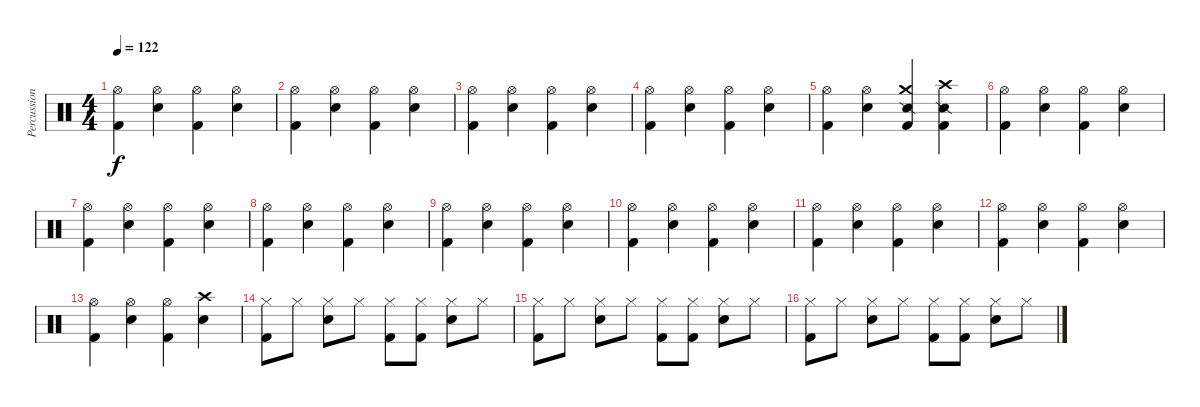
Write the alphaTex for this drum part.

\track ("Percussion" "Percussion") {instrument percussion}
\staff {score}
\articulation defaults
\ts (4 4)
\tempo 122
\clef neutral
\ks c
("Hi-Hat (open)" "Kick (hit) 2").4{dy f} ("Hi-Hat (open)" "Electric Snare (hit)").4 ("Hi-Hat (open)" "Kick (hit) 2").4 ("Hi-Hat (open)" "Electric Snare (hit)").4 |
("Hi-Hat (open)" "Kick (hit) 2").4 ("Hi-Hat (open)" "Electric Snare (hit)").4 ("Hi-Hat (open)" "Kick (hit) 2").4 ("Hi-Hat (open)" "Electric Snare (hit)").4 |
("Hi-Hat (open)" "Kick (hit) 2").4 ("Hi-Hat (open)" "Electric Snare (hit)").4 ("Hi-Hat (open)" "Kick (hit) 2").4 ("Hi-Hat (open)" "Electric Snare (hit)").4 |
("Hi-Hat (open)" "Kick (hit) 2").4 ("Hi-Hat (open)" "Electric Snare (hit)").4 ("Hi-Hat (open)" "Kick (hit) 2").4 ("Hi-Hat (open)" "Electric Snare (hit)").4 |
("Hi-Hat (open)" "Kick (hit) 2").4 ("Hi-Hat (open)" "Electric Snare (hit)").4 ("Crash medium (hit)" "Snare (side stick) 2" "Kick (hit) 2").4 ("Crash high (hit)" "Snare (side stick) 2" "Kick (hit) 2").4 |
("Hi-Hat (open)" "Kick (hit) 2").4 ("Hi-Hat (open)" "Electric Snare (hit)").4 ("Hi-Hat (open)" "Kick (hit) 2").4 ("Hi-Hat (open)" "Electric Snare (hit)").4 |
("Hi-Hat (open)" "Kick (hit) 2").4 ("Hi-Hat (open)" "Electric Snare (hit)").4 ("Hi-Hat (open)" "Kick (hit) 2").4 ("Hi-Hat (open)" "Electric Snare (hit)").4 |
("Hi-Hat (open)" "Kick (hit) 2").4 ("Hi-Hat (open)" "Electric Snare (hit)").4 ("Hi-Hat (open)" "Kick (hit) 2").4 ("Hi-Hat (open)" "Electric Snare (hit)").4 |
("Hi-Hat (open)" "Kick (hit) 2").4 ("Hi-Hat (open)" "Electric Snare (hit)").4 ("Hi-Hat (open)" "Kick (hit) 2").4 ("Hi-Hat (open)" "Electric Snare (hit)").4 |
("Hi-Hat (open)" "Kick (hit) 2").4 ("Hi-Hat (open)" "Electric Snare (hit)").4 ("Hi-Hat (open)" "Kick (hit) 2").4 ("Hi-Hat (open)" "Electric Snare (hit)").4 |
("Hi-Hat (open)" "Kick (hit) 2").4 ("Hi-Hat (open)" "Electric Snare (hit)").4 ("Hi-Hat (open)" "Kick (hit) 2").4 ("Hi-Hat (open)" "Electric Snare (hit)").4 |
("Hi-Hat (open)" "Kick (hit) 2").4 ("Hi-Hat (open)" "Electric Snare (hit)").4 ("Hi-Hat (open)" "Kick (hit) 2").4 ("Hi-Hat (open)" "Electric Snare (hit)").4 |
("Hi-Hat (open)" "Kick (hit) 2").4 ("Hi-Hat (open)" "Electric Snare (hit)").4 ("Hi-Hat (open)" "Kick (hit) 2").4 ("Crash high (hit)" "Electric Snare (hit)").4 |
("Hi-Hat (closed)" "Kick (hit) 2").8 "Hi-Hat (closed)".8 ("Hi-Hat (closed)" "Electric Snare (hit)").8 "Hi-Hat (closed)".8 ("Hi-Hat (closed)" "Kick (hit) 2").8 ("Hi-Hat (closed)" "Kick (hit) 2").8 ("Hi-Hat (closed)" "Electric Snare (hit)").8 "Hi-Hat (closed)".8 |
("Hi-Hat (closed)" "Kick (hit) 2").8 "Hi-Hat (closed)".8 ("Hi-Hat (closed)" "Electric Snare (hit)").8 "Hi-Hat (closed)".8 ("Hi-Hat (closed)" "Kick (hit) 2").8 ("Hi-Hat (closed)" "Kick (hit) 2").8 ("Hi-Hat (closed)" "Electric Snare (hit)").8 "Hi-Hat (closed)".8 |
("Hi-Hat (closed)" "Kick (hit) 2").8 "Hi-Hat (closed)".8 ("Hi-Hat (closed)" "Electric Snare (hit)").8 "Hi-Hat (closed)".8 ("Hi-Hat (closed)" "Kick (hit) 2").8 ("Hi-Hat (closed)" "Kick (hit) 2").8 ("Hi-Hat (closed)" "Electric Snare (hit)").8 "Hi-Hat (closed)".8
